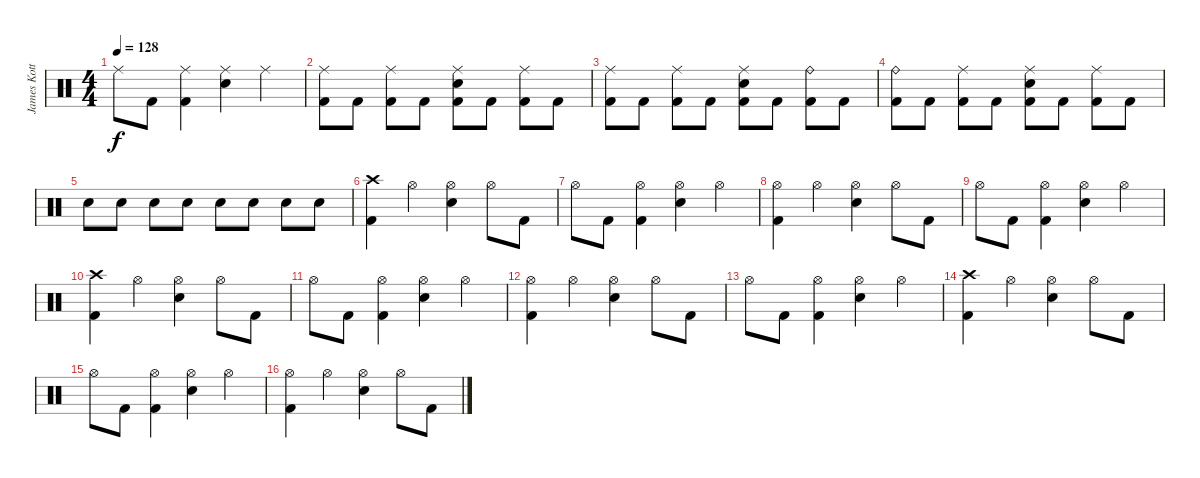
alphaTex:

\track ("James Kottak" "James Kott") {instrument percussion}
\staff {score}
\articulation defaults
\ts (4 4)
\tempo 128
\clef neutral
\ks c "Ride (middle)".8{dy f} "Kick (hit) 2".8
("Ride (middle)" "Kick (hit) 2").4 ("Ride (middle)" "Electric Snare (hit)").4 "Ride (middle)".4 |
("Ride (middle)" "Kick (hit) 2").8 "Kick (hit) 2".8 ("Ride (middle)" "Kick (hit) 2").8 "Kick (hit) 2".8 ("Ride (middle)" "Electric Snare (hit)" "Kick (hit) 2").8 "Kick (hit) 2".8 ("Ride (middle)" "Kick (hit) 2").8 "Kick (hit) 2".8 |
("Ride (middle)" "Kick (hit) 2").8 "Kick (hit) 2".8 ("Ride (middle)" "Kick (hit) 2").8 "Kick (hit) 2".8 ("Ride (middle)" "Electric Snare (hit)" "Kick (hit) 2").8 "Kick (hit) 2".8 ("Ride (bell)" "Kick (hit) 2").8 "Kick (hit) 2".8 |
("Ride (bell)" "Kick (hit) 2").8 "Kick (hit) 2".8 ("Ride (middle)" "Kick (hit) 2").8 "Kick (hit) 2".8 ("Ride (middle)" "Electric Snare (hit)" "Kick (hit) 2").8 "Kick (hit) 2".8 ("Ride (middle)" "Kick (hit) 2").8 "Kick (hit) 2".8 |
"Electric Snare (hit)".8 "Electric Snare (hit)".8 "Electric Snare (hit)".8 "Electric Snare (hit)".8 "Electric Snare (hit)".8 "Electric Snare (hit)".8 "Electric Snare (hit)".8 "Electric Snare (hit)".8 |
("Crash high (hit)" "Kick (hit) 2").4 "Hi-Hat (open)".4 ("Hi-Hat (open)" "Electric Snare (hit)").4 "Hi-Hat (open)".8 "Kick (hit) 2".8 |
"Hi-Hat (open)".8 "Kick (hit) 2".8 ("Hi-Hat (open)" "Kick (hit) 2").4 ("Hi-Hat (open)" "Electric Snare (hit)").4 "Hi-Hat (open)".4 |
("Hi-Hat (open)" "Kick (hit) 2").4 "Hi-Hat (open)".4 ("Hi-Hat (open)" "Electric Snare (hit)").4 "Hi-Hat (open)".8 "Kick (hit) 2".8 |
"Hi-Hat (open)".8 "Kick (hit) 2".8 ("Hi-Hat (open)" "Kick (hit) 2").4 ("Hi-Hat (open)" "Electric Snare (hit)").4 "Hi-Hat (open)".4 |
("Crash high (hit)" "Kick (hit) 2").4 "Hi-Hat (open)".4 ("Hi-Hat (open)" "Electric Snare (hit)").4 "Hi-Hat (open)".8 "Kick (hit) 2".8 |
"Hi-Hat (open)".8 "Kick (hit) 2".8 ("Hi-Hat (open)" "Kick (hit) 2").4 ("Hi-Hat (open)" "Electric Snare (hit)").4 "Hi-Hat (open)".4 |
("Hi-Hat (open)" "Kick (hit) 2").4 "Hi-Hat (open)".4 ("Hi-Hat (open)" "Electric Snare (hit)").4 "Hi-Hat (open)".8 "Kick (hit) 2".8 |
"Hi-Hat (open)".8 "Kick (hit) 2".8 ("Hi-Hat (open)" "Kick (hit) 2").4 ("Hi-Hat (open)" "Electric Snare (hit)").4 "Hi-Hat (open)".4 |
("Crash high (hit)" "Kick (hit) 2").4 "Hi-Hat (open)".4 ("Hi-Hat (open)" "Electric Snare (hit)").4 "Hi-Hat (open)".8 "Kick (hit) 2".8 |
"Hi-Hat (open)".8 "Kick (hit) 2".8 ("Hi-Hat (open)" "Kick (hit) 2").4 ("Hi-Hat (open)" "Electric Snare (hit)").4 "Hi-Hat (open)".4 |
("Hi-Hat (open)" "Kick (hit) 2").4 "Hi-Hat (open)".4 ("Hi-Hat (open)" "Electric Snare (hit)").4 "Hi-Hat (open)".8 "Kick (hit) 2".8
